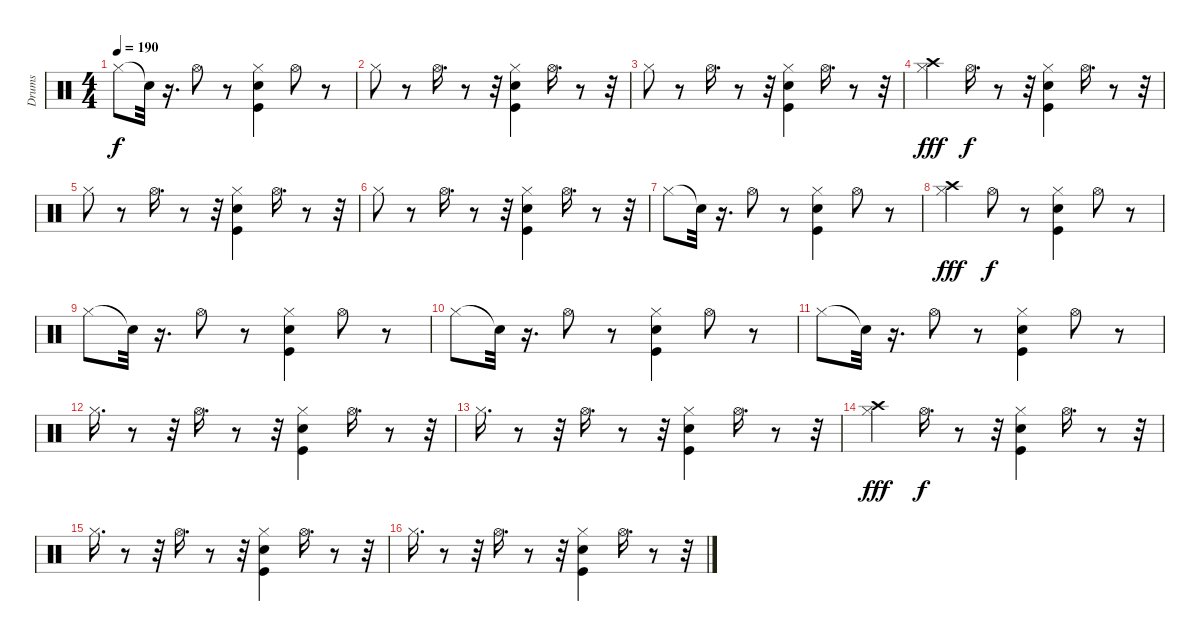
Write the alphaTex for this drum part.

\track ("Drums" "Drums") {instrument percussion}
\staff {score}
\articulation defaults
\ts (4 4)
\tempo 190
\clef neutral
\ks c "Hi-Hat (closed)".8{dy f} "Snare (hit)"{t}.32
r.16{d} "Hi-Hat (open)".8 r.8 ("Kick (hit)" "Snare (hit) 2" "Hi-Hat (closed)").4 "Hi-Hat (open)".8 r.8 |
"Hi-Hat (closed)".8 r.8 "Hi-Hat (open)".16{d} r.8 r.32 ("Kick (hit)" "Snare (hit) 2" "Hi-Hat (closed)").4 "Hi-Hat (open)".16{d} r.8 r.32 |
"Hi-Hat (closed)".8 r.8 "Hi-Hat (open)".16{d} r.8 r.32 ("Kick (hit)" "Snare (hit) 2" "Hi-Hat (closed)").4 "Hi-Hat (open)".16{d} r.8 r.32 |
("Crash high (hit)" "Hi-Hat (closed)").4{dy fff} "Hi-Hat (open)".16{d dy f} r.8 r.32 ("Kick (hit)" "Snare (hit) 2" "Hi-Hat (closed)").4 "Hi-Hat (open)".16{d} r.8 r.32 |
"Hi-Hat (closed)".8 r.8 "Hi-Hat (open)".16{d} r.8 r.32 ("Kick (hit)" "Snare (hit) 2" "Hi-Hat (closed)").4 "Hi-Hat (open)".16{d} r.8 r.32 |
"Hi-Hat (closed)".8 r.8 "Hi-Hat (open)".16{d} r.8 r.32 ("Kick (hit)" "Snare (hit) 2" "Hi-Hat (closed)").4 "Hi-Hat (open)".16{d} r.8 r.32 |
"Hi-Hat (closed)".8 "Snare (hit)"{t}.32 r.16{d} "Hi-Hat (open)".8 r.8 ("Kick (hit)" "Snare (hit) 2" "Hi-Hat (closed)").4 "Hi-Hat (open)".8 r.8 |
("Crash high (hit)" "Hi-Hat (closed)").4{dy fff} "Hi-Hat (open)".8{dy f} r.8 ("Kick (hit)" "Snare (hit) 2" "Hi-Hat (closed)").4 "Hi-Hat (open)".8 r.8 |
"Hi-Hat (closed)".8 "Snare (hit)"{t}.32 r.16{d} "Hi-Hat (open)".8 r.8 ("Kick (hit)" "Snare (hit) 2" "Hi-Hat (closed)").4 "Hi-Hat (open)".8 r.8 |
"Hi-Hat (closed)".8 "Snare (hit)"{t}.32 r.16{d} "Hi-Hat (open)".8 r.8 ("Kick (hit)" "Snare (hit) 2" "Hi-Hat (closed)").4 "Hi-Hat (open)".8 r.8 |
"Hi-Hat (closed)".8 "Snare (hit)"{t}.32 r.16{d} "Hi-Hat (open)".8 r.8 ("Kick (hit)" "Snare (hit) 2" "Hi-Hat (closed)").4 "Hi-Hat (open)".8 r.8 |
"Hi-Hat (closed)".16{d} r.8 r.32 "Hi-Hat (open)".16{d} r.8 r.32 ("Kick (hit)" "Snare (hit) 2" "Hi-Hat (closed)").4 "Hi-Hat (open)".16{d} r.8 r.32 |
"Hi-Hat (closed)".16{d} r.8 r.32 "Hi-Hat (open)".16{d} r.8 r.32 ("Kick (hit)" "Snare (hit) 2" "Hi-Hat (closed)").4 "Hi-Hat (open)".16{d} r.8 r.32 |
("Crash high (hit)" "Hi-Hat (closed)").4{dy fff} "Hi-Hat (open)".16{d dy f} r.8 r.32 ("Kick (hit)" "Snare (hit) 2" "Hi-Hat (closed)").4 "Hi-Hat (open)".16{d} r.8 r.32 |
"Hi-Hat (closed)".16{d} r.8 r.32 "Hi-Hat (open)".16{d} r.8 r.32 ("Kick (hit)" "Snare (hit) 2" "Hi-Hat (closed)").4 "Hi-Hat (open)".16{d} r.8 r.32 |
"Hi-Hat (closed)".16{d} r.8 r.32 "Hi-Hat (open)".16{d} r.8 r.32 ("Kick (hit)" "Snare (hit) 2" "Hi-Hat (closed)").4 "Hi-Hat (open)".16{d} r.8 r.32
